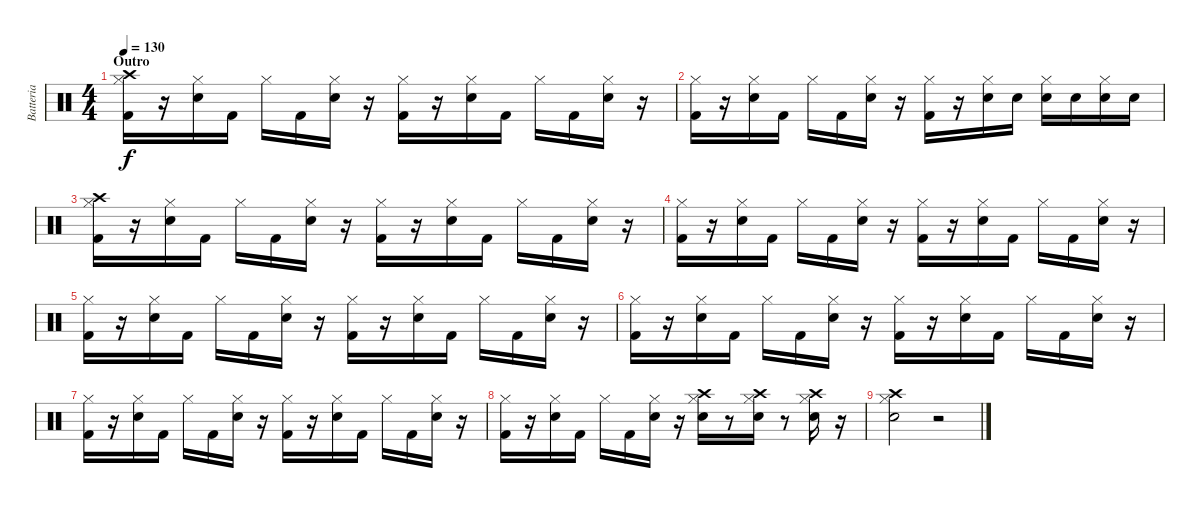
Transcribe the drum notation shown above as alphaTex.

\track ("Batteria" "Batteria") {instrument percussion}
\staff {score}
\articulation defaults
\ts (4 4)
\section ("" "Outro")
\tempo 130
\clef neutral
\ks c
("Kick (hit) 2" "Crash high (hit)" "Hi-Hat (closed)").16{dy f} r.16 ("Snare (hit) 2" "Hi-Hat (closed)").16 "Kick (hit) 2".16 "Hi-Hat (closed)".16 "Kick (hit) 2".16 ("Snare (hit) 2" "Hi-Hat (closed)").16 r.16 ("Kick (hit) 2" "Hi-Hat (closed)").16 r.16 ("Snare (hit) 2" "Hi-Hat (closed)").16 "Kick (hit) 2".16 "Hi-Hat (closed)".16 "Kick (hit) 2".16 ("Snare (hit) 2" "Hi-Hat (closed)").16 r.16 |
("Kick (hit) 2" "Hi-Hat (closed)").16 r.16 ("Snare (hit) 2" "Hi-Hat (closed)").16 "Kick (hit) 2".16 "Hi-Hat (closed)".16 "Kick (hit) 2".16 ("Snare (hit) 2" "Hi-Hat (closed)").16 r.16 ("Kick (hit) 2" "Hi-Hat (closed)").16 r.16 ("Snare (hit) 2" "Hi-Hat (closed)").16 "Snare (hit) 2".16 ("Snare (hit) 2" "Hi-Hat (closed)").16 "Snare (hit) 2".16 ("Snare (hit) 2" "Hi-Hat (closed)").16 "Snare (hit) 2".16 |
("Kick (hit) 2" "Crash high (hit)" "Hi-Hat (closed)").16 r.16 ("Snare (hit) 2" "Hi-Hat (closed)").16 "Kick (hit) 2".16 "Hi-Hat (closed)".16 "Kick (hit) 2".16 ("Snare (hit) 2" "Hi-Hat (closed)").16 r.16 ("Kick (hit) 2" "Hi-Hat (closed)").16 r.16 ("Snare (hit) 2" "Hi-Hat (closed)").16 "Kick (hit) 2".16 "Hi-Hat (closed)".16 "Kick (hit) 2".16 ("Snare (hit) 2" "Hi-Hat (closed)").16 r.16 |
("Kick (hit) 2" "Hi-Hat (closed)").16 r.16 ("Snare (hit) 2" "Hi-Hat (closed)").16 "Kick (hit) 2".16 "Hi-Hat (closed)".16 "Kick (hit) 2".16 ("Snare (hit) 2" "Hi-Hat (closed)").16 r.16 ("Kick (hit) 2" "Hi-Hat (closed)").16 r.16 ("Snare (hit) 2" "Hi-Hat (closed)").16 "Kick (hit) 2".16 "Hi-Hat (closed)".16 "Kick (hit) 2".16 ("Snare (hit) 2" "Hi-Hat (closed)").16 r.16 |
("Kick (hit) 2" "Hi-Hat (closed)").16 r.16 ("Snare (hit) 2" "Hi-Hat (closed)").16 "Kick (hit) 2".16 "Hi-Hat (closed)".16 "Kick (hit) 2".16 ("Snare (hit) 2" "Hi-Hat (closed)").16 r.16 ("Kick (hit) 2" "Hi-Hat (closed)").16 r.16 ("Snare (hit) 2" "Hi-Hat (closed)").16 "Kick (hit) 2".16 "Hi-Hat (closed)".16 "Kick (hit) 2".16 ("Snare (hit) 2" "Hi-Hat (closed)").16 r.16 |
("Kick (hit) 2" "Hi-Hat (closed)").16 r.16 ("Snare (hit) 2" "Hi-Hat (closed)").16 "Kick (hit) 2".16 "Hi-Hat (closed)".16 "Kick (hit) 2".16 ("Snare (hit) 2" "Hi-Hat (closed)").16 r.16 ("Kick (hit) 2" "Hi-Hat (closed)").16 r.16 ("Snare (hit) 2" "Hi-Hat (closed)").16 "Kick (hit) 2".16 "Hi-Hat (closed)".16 "Kick (hit) 2".16 ("Snare (hit) 2" "Hi-Hat (closed)").16 r.16 |
("Kick (hit) 2" "Hi-Hat (closed)").16 r.16 ("Snare (hit) 2" "Hi-Hat (closed)").16 "Kick (hit) 2".16 "Hi-Hat (closed)".16 "Kick (hit) 2".16 ("Snare (hit) 2" "Hi-Hat (closed)").16 r.16 ("Kick (hit) 2" "Hi-Hat (closed)").16 r.16 ("Snare (hit) 2" "Hi-Hat (closed)").16 "Kick (hit) 2".16 "Hi-Hat (closed)".16 "Kick (hit) 2".16 ("Snare (hit) 2" "Hi-Hat (closed)").16 r.16 |
("Kick (hit) 2" "Hi-Hat (closed)").16 r.16 ("Snare (hit) 2" "Hi-Hat (closed)").16 "Kick (hit) 2".16 "Hi-Hat (closed)".16 "Kick (hit) 2".16 ("Snare (hit) 2" "Hi-Hat (closed)").16 r.16 ("Snare (hit) 2" "Crash high (hit)" "Hi-Hat (closed)").16 r.8 ("Snare (hit) 2" "Crash high (hit)" "Hi-Hat (closed)").16 r.8 ("Snare (hit) 2" "Crash high (hit)" "Hi-Hat (closed)").16 r.16 |
("Snare (hit) 2" "Crash high (hit)" "Hi-Hat (closed)").2 r.2
